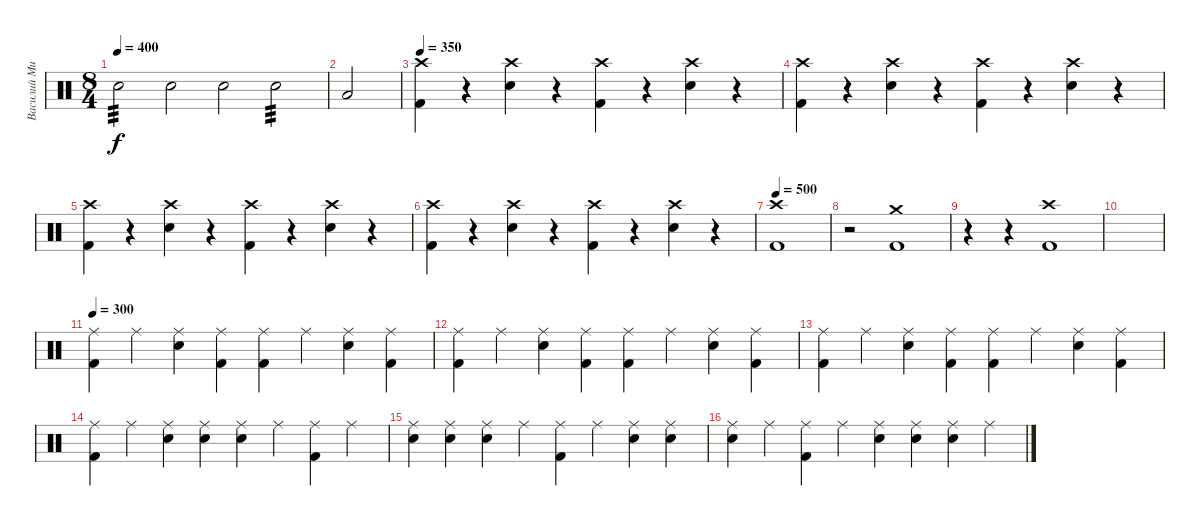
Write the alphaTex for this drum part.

\track ("Василий Михалыч-ударные" "Василий Ми") {instrument percussion}
\staff {score}
\articulation defaults
\ts (8 4)
\tempo 400
\clef neutral
\ks c "Electric Snare (hit)".2{tp 3 dy f} "Electric Snare (hit)".2 "Electric Snare (hit)".2 "Electric Snare (hit)".2{tp 3}
|
"Low Floor Tom (hit)".2 |
\tempo 350
("Kick (hit) 2" "Crash high (hit)").4 r.4 ("Electric Snare (hit)" "Crash high (hit)").4 r.4 ("Kick (hit) 2" "Crash high (hit)").4 r.4 ("Electric Snare (hit)" "Crash high (hit)").4 r.4 |
("Kick (hit) 2" "Crash high (hit)").4 r.4 ("Electric Snare (hit)" "Crash high (hit)").4 r.4 ("Kick (hit) 2" "Crash high (hit)").4 r.4 ("Electric Snare (hit)" "Crash high (hit)").4 r.4 |
("Kick (hit) 2" "Crash high (hit)").4 r.4 ("Electric Snare (hit)" "Crash high (hit)").4 r.4 ("Kick (hit) 2" "Crash high (hit)").4 r.4 ("Electric Snare (hit)" "Crash high (hit)").4 r.4 |
("Kick (hit) 2" "Crash high (hit)").4 r.4 ("Electric Snare (hit)" "Crash high (hit)").4 r.4 ("Kick (hit) 2" "Crash high (hit)").4 r.4 ("Electric Snare (hit)" "Crash high (hit)").4 r.4 |
\tempo 500
("Kick (hit) 2" "Crash high (hit)").1 |
r.2 ("Kick (hit) 2" "Crash medium (hit)").1 |
r.4 r.4 ("Kick (hit) 2" "Crash high (hit)").1 |
|
\tempo 300
("Kick (hit) 2" "Ride (middle)").4 "Ride (middle)".4 ("Electric Snare (hit)" "Ride (middle)").4 ("Kick (hit) 2" "Ride (middle)").4 ("Kick (hit) 2" "Ride (middle)").4 "Ride (middle)".4 ("Electric Snare (hit)" "Ride (middle)").4 ("Kick (hit) 2" "Ride (middle)").4 |
("Kick (hit) 2" "Ride (middle)").4 "Ride (middle)".4 ("Electric Snare (hit)" "Ride (middle)").4 ("Kick (hit) 2" "Ride (middle)").4 ("Kick (hit) 2" "Ride (middle)").4 "Ride (middle)".4 ("Electric Snare (hit)" "Ride (middle)").4 ("Kick (hit) 2" "Ride (middle)").4 |
("Kick (hit) 2" "Ride (middle)").4 "Ride (middle)".4 ("Electric Snare (hit)" "Ride (middle)").4 ("Kick (hit) 2" "Ride (middle)").4 ("Kick (hit) 2" "Ride (middle)").4 "Ride (middle)".4 ("Electric Snare (hit)" "Ride (middle)").4 ("Kick (hit) 2" "Ride (middle)").4 |
("Kick (hit) 2" "Ride (middle)").4 "Ride (middle)".4 ("Electric Snare (hit)" "Ride (middle)").4 ("Electric Snare (hit)" "Ride (middle)").4 ("Electric Snare (hit)" "Ride (middle)").4 "Ride (middle)".4 ("Kick (hit) 2" "Ride (middle)").4 "Ride (middle)".4 |
("Electric Snare (hit)" "Ride (middle)").4 ("Electric Snare (hit)" "Ride (middle)").4 ("Electric Snare (hit)" "Ride (middle)").4 "Ride (middle)".4 ("Kick (hit) 2" "Ride (middle)").4 "Ride (middle)".4 ("Electric Snare (hit)" "Ride (middle)").4 ("Electric Snare (hit)" "Ride (middle)").4 |
("Electric Snare (hit)" "Ride (middle)").4 "Ride (middle)".4 ("Kick (hit) 2" "Ride (middle)").4 "Ride (middle)".4 ("Electric Snare (hit)" "Ride (middle)").4 ("Electric Snare (hit)" "Ride (middle)").4 ("Electric Snare (hit)" "Ride (middle)").4 "Ride (middle)".4
